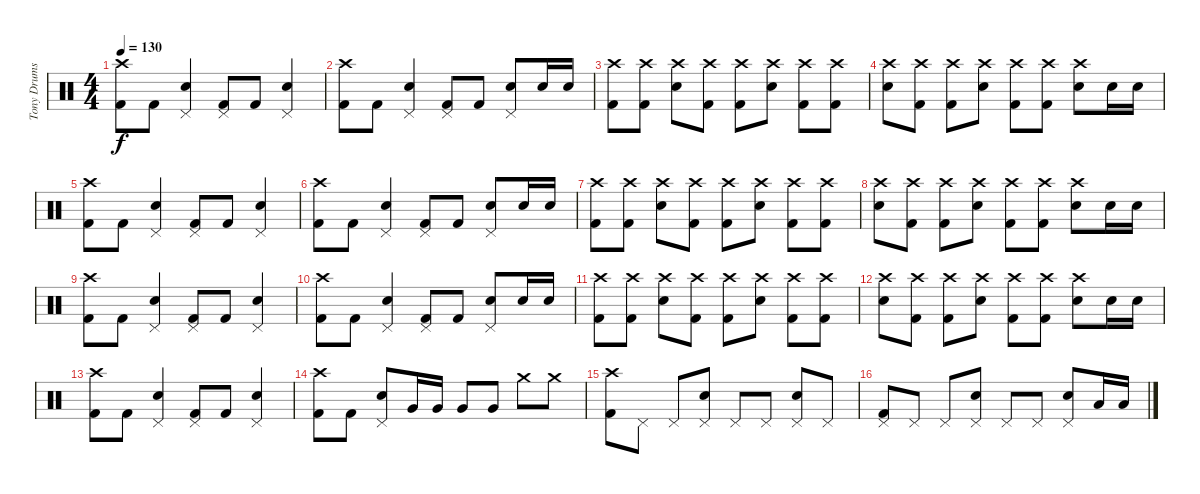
\track ("Tony Drums" "Tony Drums") {instrument percussion}
\staff {score}
\articulation defaults
\ts (4 4)
\tempo 130
\clef neutral
\ks c
("Crash high (hit)" "Kick (hit) 2").8{dy f} "Kick (hit) 2".8 ("Pedal Hi-Hat (hit)" "Snare (hit) 2").4 ("Pedal Hi-Hat (hit)" "Kick (hit) 2").8 "Kick (hit) 2".8 ("Pedal Hi-Hat (hit)" "Snare (hit) 2").4 |
("Crash high (hit)" "Kick (hit) 2").8 "Kick (hit) 2".8 ("Pedal Hi-Hat (hit)" "Snare (hit) 2").4 ("Pedal Hi-Hat (hit)" "Kick (hit) 2").8 "Kick (hit) 2".8 ("Pedal Hi-Hat (hit)" "Snare (hit) 2").8 "Snare (hit) 2".16 "Snare (hit) 2".16 |
("Crash high (hit)" "Kick (hit) 2").8 ("Crash high (hit)" "Kick (hit) 2").8 ("Crash high (hit)" "Snare (hit) 2").8 ("Crash high (hit)" "Kick (hit) 2").8 ("Crash high (hit)" "Kick (hit) 2").8 ("Crash high (hit)" "Snare (hit) 2").8 ("Crash high (hit)" "Kick (hit) 2").8 ("Crash high (hit)" "Kick (hit) 2").8 |
("Crash high (hit)" "Snare (hit) 2").8 ("Crash high (hit)" "Kick (hit) 2").8 ("Crash high (hit)" "Kick (hit) 2").8 ("Crash high (hit)" "Snare (hit) 2").8 ("Crash high (hit)" "Kick (hit) 2").8 ("Crash high (hit)" "Kick (hit) 2").8 ("Crash high (hit)" "Snare (hit) 2").8 "Snare (hit) 2".16 "Snare (hit) 2".16 |
("Crash high (hit)" "Kick (hit) 2").8 "Kick (hit) 2".8 ("Pedal Hi-Hat (hit)" "Snare (hit) 2").4 ("Pedal Hi-Hat (hit)" "Kick (hit) 2").8 "Kick (hit) 2".8 ("Pedal Hi-Hat (hit)" "Snare (hit) 2").4 |
("Crash high (hit)" "Kick (hit) 2").8 "Kick (hit) 2".8 ("Pedal Hi-Hat (hit)" "Snare (hit) 2").4 ("Pedal Hi-Hat (hit)" "Kick (hit) 2").8 "Kick (hit) 2".8 ("Pedal Hi-Hat (hit)" "Snare (hit) 2").8 "Snare (hit) 2".16 "Snare (hit) 2".16 |
("Crash high (hit)" "Kick (hit) 2").8 ("Crash high (hit)" "Kick (hit) 2").8 ("Crash high (hit)" "Snare (hit) 2").8 ("Crash high (hit)" "Kick (hit) 2").8 ("Crash high (hit)" "Kick (hit) 2").8 ("Crash high (hit)" "Snare (hit) 2").8 ("Crash high (hit)" "Kick (hit) 2").8 ("Crash high (hit)" "Kick (hit) 2").8 |
("Crash high (hit)" "Snare (hit) 2").8 ("Crash high (hit)" "Kick (hit) 2").8 ("Crash high (hit)" "Kick (hit) 2").8 ("Crash high (hit)" "Snare (hit) 2").8 ("Crash high (hit)" "Kick (hit) 2").8 ("Crash high (hit)" "Kick (hit) 2").8 ("Crash high (hit)" "Snare (hit) 2").8 "Snare (hit) 2".16 "Snare (hit) 2".16 |
("Crash high (hit)" "Kick (hit) 2").8 "Kick (hit) 2".8 ("Pedal Hi-Hat (hit)" "Snare (hit) 2").4 ("Pedal Hi-Hat (hit)" "Kick (hit) 2").8 "Kick (hit) 2".8 ("Pedal Hi-Hat (hit)" "Snare (hit) 2").4 |
("Crash high (hit)" "Kick (hit) 2").8 "Kick (hit) 2".8 ("Pedal Hi-Hat (hit)" "Snare (hit) 2").4 ("Pedal Hi-Hat (hit)" "Kick (hit) 2").8 "Kick (hit) 2".8 ("Pedal Hi-Hat (hit)" "Snare (hit) 2").8 "Snare (hit) 2".16 "Snare (hit) 2".16 |
("Crash high (hit)" "Kick (hit) 2").8 ("Crash high (hit)" "Kick (hit) 2").8 ("Crash high (hit)" "Snare (hit) 2").8 ("Crash high (hit)" "Kick (hit) 2").8 ("Crash high (hit)" "Kick (hit) 2").8 ("Crash high (hit)" "Snare (hit) 2").8 ("Crash high (hit)" "Kick (hit) 2").8 ("Crash high (hit)" "Kick (hit) 2").8 |
("Crash high (hit)" "Snare (hit) 2").8 ("Crash high (hit)" "Kick (hit) 2").8 ("Crash high (hit)" "Kick (hit) 2").8 ("Crash high (hit)" "Snare (hit) 2").8 ("Crash high (hit)" "Kick (hit) 2").8 ("Crash high (hit)" "Kick (hit) 2").8 ("Crash high (hit)" "Snare (hit) 2").8 "Snare (hit) 2".16 "Snare (hit) 2".16 |
("Crash high (hit)" "Kick (hit) 2").8 "Kick (hit) 2".8 ("Pedal Hi-Hat (hit)" "Snare (hit) 2").4 ("Pedal Hi-Hat (hit)" "Kick (hit) 2").8 "Kick (hit) 2".8 ("Pedal Hi-Hat (hit)" "Snare (hit) 2").4 |
("Crash high (hit)" "Kick (hit) 2").8 "Kick (hit) 2".8 ("Pedal Hi-Hat (hit)" "Snare (hit) 2").8 "Very Low Tom (hit)".16 "Very Low Tom (hit)".16 "Very Low Tom (hit)".8 "Very Low Tom (hit)".8 "Crash medium (hit)".8 "Crash medium (hit)".8 |
("Crash high (hit)" "Kick (hit) 2").8 "Pedal Hi-Hat (hit)".8 "Pedal Hi-Hat (hit)".8 ("Pedal Hi-Hat (hit)" "Snare (hit) 2").8 "Pedal Hi-Hat (hit)".8 "Pedal Hi-Hat (hit)".8 ("Pedal Hi-Hat (hit)" "Snare (hit) 2").8 "Pedal Hi-Hat (hit)".8 |
("Pedal Hi-Hat (hit)" "Kick (hit) 2").8 "Pedal Hi-Hat (hit)".8 "Pedal Hi-Hat (hit)".8 ("Pedal Hi-Hat (hit)" "Snare (hit) 2").8 "Pedal Hi-Hat (hit)".8 "Pedal Hi-Hat (hit)".8 ("Pedal Hi-Hat (hit)" "Snare (hit) 2").8 "Low Tom (hit)".16 "Low Tom (hit)".16
